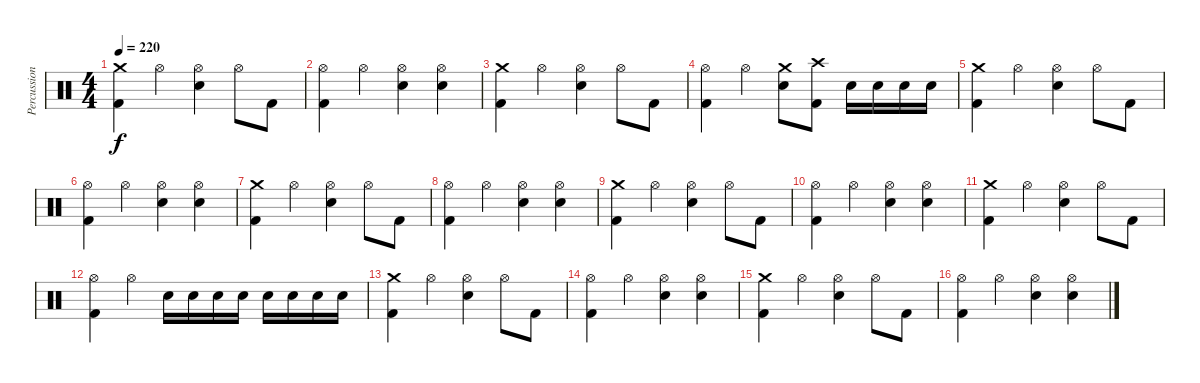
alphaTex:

\track ("Percussion" "Percussion") {instrument percussion}
\staff {score}
\articulation defaults
\ts (4 4)
\tempo 220
\clef neutral
\ks c
("Crash medium (hit)" "Kick (hit) 2").4{dy f} "Hi-Hat (open)".4 ("Snare (hit) 2" "Hi-Hat (open)").4 "Hi-Hat (open)".8 "Kick (hit) 2".8 |
("Kick (hit) 2" "Hi-Hat (open)").4 "Hi-Hat (open)".4 ("Snare (hit) 2" "Hi-Hat (open)").4 ("Snare (hit) 2" "Hi-Hat (open)").4 |
("Crash medium (hit)" "Kick (hit) 2").4 "Hi-Hat (open)".4 ("Snare (hit) 2" "Hi-Hat (open)").4 "Hi-Hat (open)".8 "Kick (hit) 2".8 |
("Kick (hit) 2" "Hi-Hat (open)").4 "Hi-Hat (open)".4 ("Snare (hit) 2" "Crash medium (hit)").8 ("Kick (hit) 2" "Crash high (hit)").8 "Snare (hit) 2".16 "Snare (hit) 2".16 "Snare (hit) 2".16 "Snare (hit) 2".16 |
("Crash medium (hit)" "Kick (hit) 2").4 "Hi-Hat (open)".4 ("Snare (hit) 2" "Hi-Hat (open)").4 "Hi-Hat (open)".8 "Kick (hit) 2".8 |
("Kick (hit) 2" "Hi-Hat (open)").4 "Hi-Hat (open)".4 ("Snare (hit) 2" "Hi-Hat (open)").4 ("Snare (hit) 2" "Hi-Hat (open)").4 |
("Crash medium (hit)" "Kick (hit) 2").4 "Hi-Hat (open)".4 ("Snare (hit) 2" "Hi-Hat (open)").4 "Hi-Hat (open)".8 "Kick (hit) 2".8 |
("Kick (hit) 2" "Hi-Hat (open)").4 "Hi-Hat (open)".4 ("Snare (hit) 2" "Hi-Hat (open)").4 ("Snare (hit) 2" "Hi-Hat (open)").4 |
("Crash medium (hit)" "Kick (hit) 2").4 "Hi-Hat (open)".4 ("Snare (hit) 2" "Hi-Hat (open)").4 "Hi-Hat (open)".8 "Kick (hit) 2".8 |
("Kick (hit) 2" "Hi-Hat (open)").4 "Hi-Hat (open)".4 ("Snare (hit) 2" "Hi-Hat (open)").4 ("Snare (hit) 2" "Hi-Hat (open)").4 |
("Crash medium (hit)" "Kick (hit) 2").4 "Hi-Hat (open)".4 ("Snare (hit) 2" "Hi-Hat (open)").4 "Hi-Hat (open)".8 "Kick (hit) 2".8 |
("Kick (hit) 2" "Hi-Hat (open)").4 "Hi-Hat (open)".4 "Snare (hit) 2".16 "Snare (hit) 2".16 "Snare (hit) 2".16 "Snare (hit) 2".16 "Snare (hit) 2".16 "Snare (hit) 2".16 "Snare (hit) 2".16 "Snare (hit) 2".16 |
("Crash medium (hit)" "Kick (hit) 2").4 "Hi-Hat (open)".4 ("Snare (hit) 2" "Hi-Hat (open)").4 "Hi-Hat (open)".8 "Kick (hit) 2".8 |
("Kick (hit) 2" "Hi-Hat (open)").4 "Hi-Hat (open)".4 ("Snare (hit) 2" "Hi-Hat (open)").4 ("Snare (hit) 2" "Hi-Hat (open)").4 |
("Crash medium (hit)" "Kick (hit) 2").4 "Hi-Hat (open)".4 ("Snare (hit) 2" "Hi-Hat (open)").4 "Hi-Hat (open)".8 "Kick (hit) 2".8 |
("Kick (hit) 2" "Hi-Hat (open)").4 "Hi-Hat (open)".4 ("Snare (hit) 2" "Hi-Hat (open)").4 ("Snare (hit) 2" "Hi-Hat (open)").4
